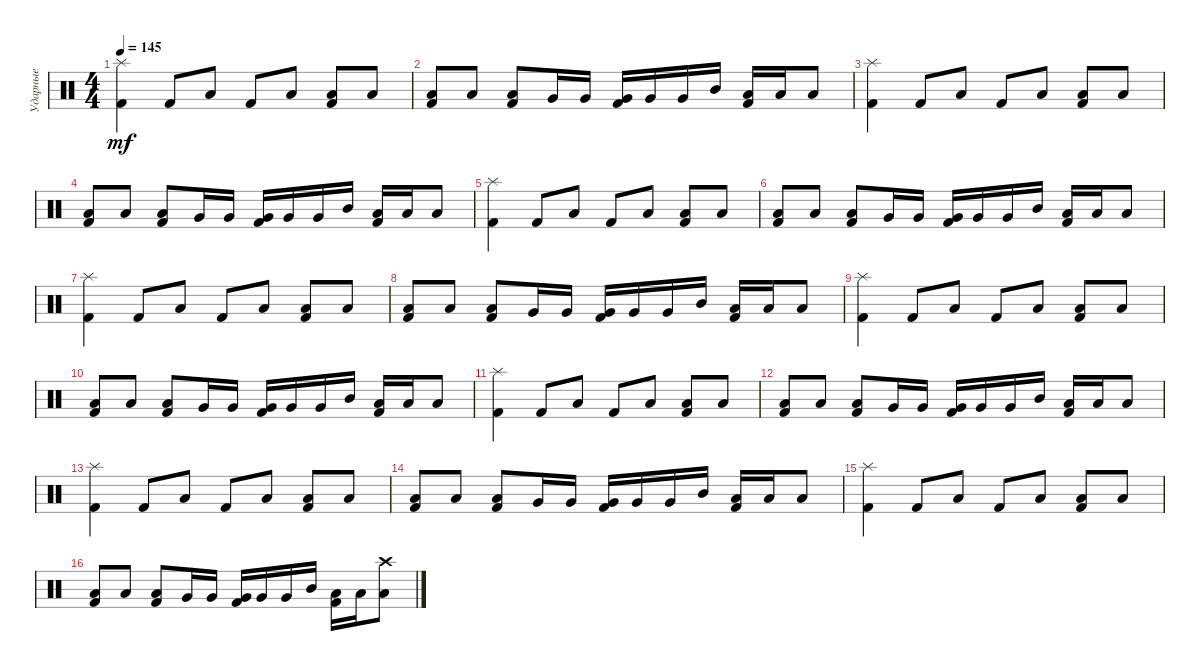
\track ("Ударные" "Ударные") {instrument percussion}
\staff {score}
\articulation defaults
\ts (4 4)
\tempo 145
\clef neutral
\ks c
("Splash (hit)" "Kick (hit) 2").4{dy mf} "Kick (hit) 2".8 "Low Tom (hit)".8 "Kick (hit) 2".8 "Low Tom (hit)".8 ("Low Tom (hit)" "Kick (hit) 2").8 "Low Tom (hit)".8 |
("Low Tom (hit)" "Kick (hit) 2").8 "Low Tom (hit)".8 ("Low Tom (hit)" "Kick (hit) 2").8 "Very Low Tom (hit)".16 "Very Low Tom (hit)".16 ("Very Low Tom (hit)" "Kick (hit) 2").16 "Very Low Tom (hit)".16 "Very Low Tom (hit)".16 "Mid Tom (hit)".16 ("Low Tom (hit)" "Kick (hit) 2").16 "Low Tom (hit)".16 "Low Tom (hit)".8 |
("Splash (hit)" "Kick (hit) 2").4 "Kick (hit) 2".8 "Low Tom (hit)".8 "Kick (hit) 2".8 "Low Tom (hit)".8 ("Low Tom (hit)" "Kick (hit) 2").8 "Low Tom (hit)".8 |
("Low Tom (hit)" "Kick (hit) 2").8 "Low Tom (hit)".8 ("Low Tom (hit)" "Kick (hit) 2").8 "Very Low Tom (hit)".16 "Very Low Tom (hit)".16 ("Very Low Tom (hit)" "Kick (hit) 2").16 "Very Low Tom (hit)".16 "Very Low Tom (hit)".16 "Mid Tom (hit)".16 ("Low Tom (hit)" "Kick (hit) 2").16 "Low Tom (hit)".16 "Low Tom (hit)".8 |
("Splash (hit)" "Kick (hit) 2").4 "Kick (hit) 2".8 "Low Tom (hit)".8 "Kick (hit) 2".8 "Low Tom (hit)".8 ("Low Tom (hit)" "Kick (hit) 2").8 "Low Tom (hit)".8 |
("Low Tom (hit)" "Kick (hit) 2").8 "Low Tom (hit)".8 ("Low Tom (hit)" "Kick (hit) 2").8 "Very Low Tom (hit)".16 "Very Low Tom (hit)".16 ("Very Low Tom (hit)" "Kick (hit) 2").16 "Very Low Tom (hit)".16 "Very Low Tom (hit)".16 "Mid Tom (hit)".16 ("Low Tom (hit)" "Kick (hit) 2").16 "Low Tom (hit)".16 "Low Tom (hit)".8 |
("Splash (hit)" "Kick (hit) 2").4 "Kick (hit) 2".8 "Low Tom (hit)".8 "Kick (hit) 2".8 "Low Tom (hit)".8 ("Low Tom (hit)" "Kick (hit) 2").8 "Low Tom (hit)".8 |
("Low Tom (hit)" "Kick (hit) 2").8 "Low Tom (hit)".8 ("Low Tom (hit)" "Kick (hit) 2").8 "Very Low Tom (hit)".16 "Very Low Tom (hit)".16 ("Very Low Tom (hit)" "Kick (hit) 2").16 "Very Low Tom (hit)".16 "Very Low Tom (hit)".16 "Mid Tom (hit)".16 ("Low Tom (hit)" "Kick (hit) 2").16 "Low Tom (hit)".16 "Low Tom (hit)".8 |
("Splash (hit)" "Kick (hit) 2").4 "Kick (hit) 2".8 "Low Tom (hit)".8 "Kick (hit) 2".8 "Low Tom (hit)".8 ("Low Tom (hit)" "Kick (hit) 2").8 "Low Tom (hit)".8 |
("Low Tom (hit)" "Kick (hit) 2").8 "Low Tom (hit)".8 ("Low Tom (hit)" "Kick (hit) 2").8 "Very Low Tom (hit)".16 "Very Low Tom (hit)".16 ("Very Low Tom (hit)" "Kick (hit) 2").16 "Very Low Tom (hit)".16 "Very Low Tom (hit)".16 "Mid Tom (hit)".16 ("Low Tom (hit)" "Kick (hit) 2").16 "Low Tom (hit)".16 "Low Tom (hit)".8 |
("Splash (hit)" "Kick (hit) 2").4 "Kick (hit) 2".8 "Low Tom (hit)".8 "Kick (hit) 2".8 "Low Tom (hit)".8 ("Low Tom (hit)" "Kick (hit) 2").8 "Low Tom (hit)".8 |
("Low Tom (hit)" "Kick (hit) 2").8 "Low Tom (hit)".8 ("Low Tom (hit)" "Kick (hit) 2").8 "Very Low Tom (hit)".16 "Very Low Tom (hit)".16 ("Very Low Tom (hit)" "Kick (hit) 2").16 "Very Low Tom (hit)".16 "Very Low Tom (hit)".16 "Mid Tom (hit)".16 ("Low Tom (hit)" "Kick (hit) 2").16 "Low Tom (hit)".16 "Low Tom (hit)".8 |
("Splash (hit)" "Kick (hit) 2").4 "Kick (hit) 2".8 "Low Tom (hit)".8 "Kick (hit) 2".8 "Low Tom (hit)".8 ("Low Tom (hit)" "Kick (hit) 2").8 "Low Tom (hit)".8 |
("Low Tom (hit)" "Kick (hit) 2").8 "Low Tom (hit)".8 ("Low Tom (hit)" "Kick (hit) 2").8 "Very Low Tom (hit)".16 "Very Low Tom (hit)".16 ("Very Low Tom (hit)" "Kick (hit) 2").16 "Very Low Tom (hit)".16 "Very Low Tom (hit)".16 "Mid Tom (hit)".16 ("Low Tom (hit)" "Kick (hit) 2").16 "Low Tom (hit)".16 "Low Tom (hit)".8 |
("Splash (hit)" "Kick (hit) 2").4 "Kick (hit) 2".8 "Low Tom (hit)".8 "Kick (hit) 2".8 "Low Tom (hit)".8 ("Low Tom (hit)" "Kick (hit) 2").8 "Low Tom (hit)".8 |
("Low Tom (hit)" "Kick (hit) 2").8 "Low Tom (hit)".8 ("Low Tom (hit)" "Kick (hit) 2").8 "Very Low Tom (hit)".16 "Very Low Tom (hit)".16 ("Very Low Tom (hit)" "Kick (hit) 2").16 "Very Low Tom (hit)".16 "Very Low Tom (hit)".16 "Mid Tom (hit)".16 ("Low Tom (hit)" "Kick (hit) 2").16 "Low Tom (hit)".16 ("Crash high (hit)" "Low Tom (hit)").8
